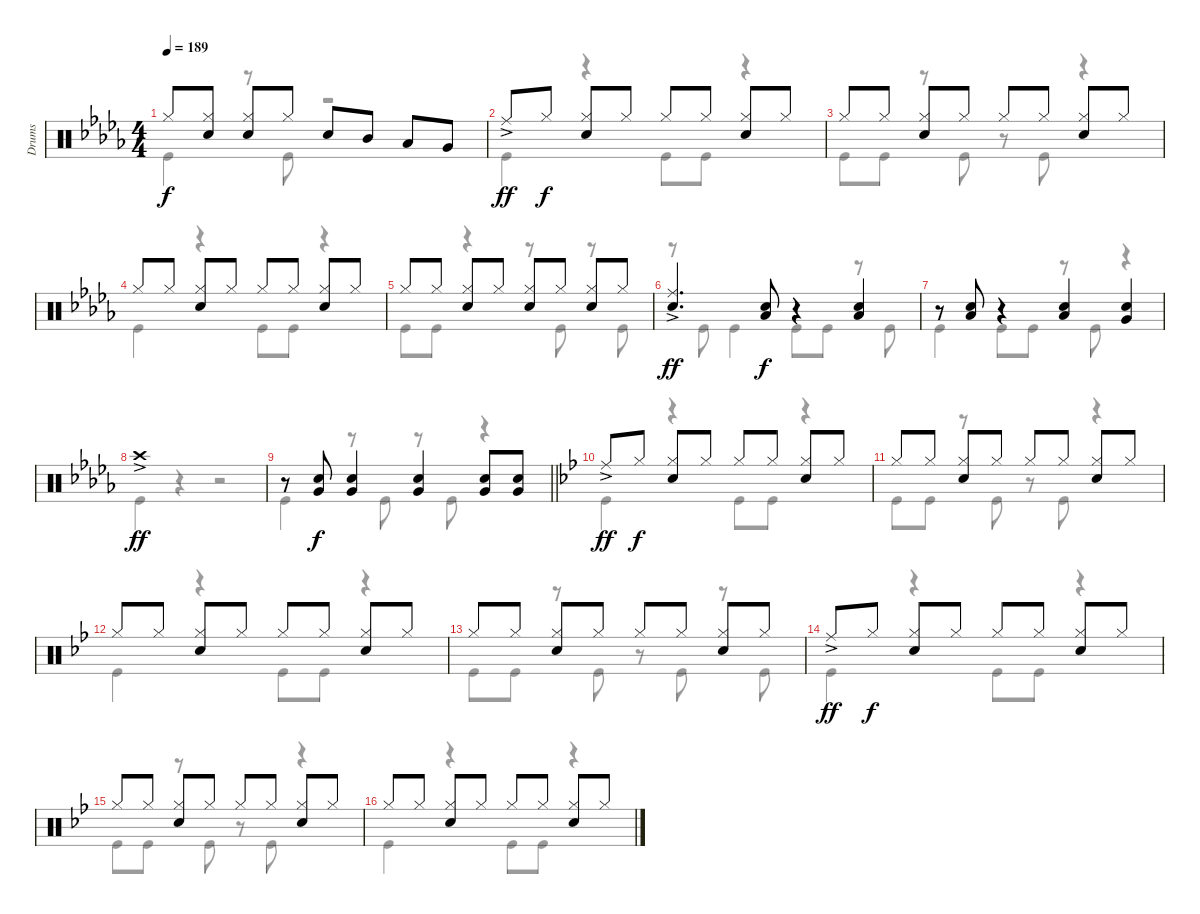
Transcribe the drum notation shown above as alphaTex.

\track ("Drums" "Drums") {instrument percussion}
\staff {score}
\articulation defaults
\voice
\ts (4 4)
\tempo 189
\clef neutral
\ks db "Hi-Hat (closed)".8{dy f}
("Hi-Hat (closed)" "Snare (hit) 2").8 ("Hi-Hat (closed)" "Snare (hit) 2").8 "Hi-Hat (closed)".8 "Snare (hit) 2".8 "Mid Tom (hit)".8 "Low Tom (hit)".8 "Very Low Tom (hit)".8 |
"Ride (middle)"{ac}.8{dy ff} "Hi-Hat (closed)".8{dy f} ("Hi-Hat (closed)" "Snare (hit) 2").8 "Hi-Hat (closed)".8 "Hi-Hat (closed)".8 "Hi-Hat (closed)".8 ("Hi-Hat (closed)" "Snare (hit) 2").8 "Hi-Hat (closed)".8 |
"Hi-Hat (closed)".8 "Hi-Hat (closed)".8 ("Hi-Hat (closed)" "Snare (hit) 2").8 "Hi-Hat (closed)".8 "Hi-Hat (closed)".8 "Hi-Hat (closed)".8 ("Hi-Hat (closed)" "Snare (hit) 2").8 "Hi-Hat (closed)".8 |
"Hi-Hat (closed)".8 "Hi-Hat (closed)".8 ("Hi-Hat (closed)" "Snare (hit) 2").8 "Hi-Hat (closed)".8 "Hi-Hat (closed)".8 "Hi-Hat (closed)".8 ("Hi-Hat (closed)" "Snare (hit) 2").8 "Hi-Hat (closed)".8 |
"Hi-Hat (closed)".8 "Hi-Hat (closed)".8 ("Hi-Hat (closed)" "Snare (hit) 2").8 "Hi-Hat (closed)".8 ("Hi-Hat (closed)" "Snare (hit) 2").8 "Hi-Hat (closed)".8 ("Hi-Hat (closed)" "Snare (hit) 2").8 "Hi-Hat (closed)".8 |
("Ride (middle)"{ac} "Snare (hit) 2").4{d dy ff} ("Snare (hit) 2" "Low Tom (hit)").8{dy f} r.4 ("Snare (hit) 2" "Low Tom (hit)").4 |
r.8 ("Snare (hit) 2" "Low Tom (hit)").8 r.4 ("Snare (hit) 2" "Low Tom (hit)").4 ("Snare (hit) 2" "Very Low Tom (hit)").4 |
"Crash high (hit)"{ac}.1{dy ff} |
\barLineRight lightlight
r.8 ("Snare (hit) 2" "Very Low Tom (hit)").8{dy f} ("Snare (hit) 2" "Very Low Tom (hit)").4 ("Snare (hit) 2" "Very Low Tom (hit)").4 ("Snare (hit) 2" "Very Low Tom (hit)").8 ("Snare (hit) 2" "Very Low Tom (hit)").8 |
\ks bb "Ride (middle)"{ac}.8{dy ff} "Hi-Hat (closed)".8{dy f}
("Hi-Hat (closed)" "Snare (hit) 2").8 "Hi-Hat (closed)".8 "Hi-Hat (closed)".8 "Hi-Hat (closed)".8 ("Hi-Hat (closed)" "Snare (hit) 2").8 "Hi-Hat (closed)".8 |
"Hi-Hat (closed)".8 "Hi-Hat (closed)".8 ("Hi-Hat (closed)" "Snare (hit) 2").8 "Hi-Hat (closed)".8 "Hi-Hat (closed)".8 "Hi-Hat (closed)".8 ("Hi-Hat (closed)" "Snare (hit) 2").8 "Hi-Hat (closed)".8 |
"Hi-Hat (closed)".8 "Hi-Hat (closed)".8 ("Hi-Hat (closed)" "Snare (hit) 2").8 "Hi-Hat (closed)".8 "Hi-Hat (closed)".8 "Hi-Hat (closed)".8 ("Hi-Hat (closed)" "Snare (hit) 2").8 "Hi-Hat (closed)".8 |
"Hi-Hat (closed)".8 "Hi-Hat (closed)".8 ("Hi-Hat (closed)" "Snare (hit) 2").8 "Hi-Hat (closed)".8 "Hi-Hat (closed)".8 "Hi-Hat (closed)".8 ("Hi-Hat (closed)" "Snare (hit) 2").8 "Hi-Hat (closed)".8 |
"Ride (middle)"{ac}.8{dy ff} "Hi-Hat (closed)".8{dy f} ("Hi-Hat (closed)" "Snare (hit) 2").8 "Hi-Hat (closed)".8 "Hi-Hat (closed)".8 "Hi-Hat (closed)".8 ("Hi-Hat (closed)" "Snare (hit) 2").8 "Hi-Hat (closed)".8 |
"Hi-Hat (closed)".8 "Hi-Hat (closed)".8 ("Hi-Hat (closed)" "Snare (hit) 2").8 "Hi-Hat (closed)".8 "Hi-Hat (closed)".8 "Hi-Hat (closed)".8 ("Hi-Hat (closed)" "Snare (hit) 2").8 "Hi-Hat (closed)".8 |
"Hi-Hat (closed)".8 "Hi-Hat (closed)".8 ("Hi-Hat (closed)" "Snare (hit) 2").8 "Hi-Hat (closed)".8 "Hi-Hat (closed)".8 "Hi-Hat (closed)".8 ("Hi-Hat (closed)" "Snare (hit) 2").8 "Hi-Hat (closed)".8
\voice
\clef neutral
\ottava regular
\simile none
\ks db "Kick (hit)".4{dy f}
r.8 "Kick (hit)".8 r.2 |
"Kick (hit)".4 r.4 "Kick (hit)".8 "Kick (hit)".8 r.4 |
"Kick (hit)".8 "Kick (hit)".8 r.8 "Kick (hit)".8 r.8 "Kick (hit)".8 r.4 |
"Kick (hit)".4 r.4 "Kick (hit)".8 "Kick (hit)".8 r.4 |
"Kick (hit)".8 "Kick (hit)".8 r.4 r.8 "Kick (hit)".8 r.8 "Kick (hit)".8 |
r.8 "Kick (hit)".8 "Kick (hit)".4 "Kick (hit)".8 "Kick (hit)".8 r.8 "Kick (hit)".8 |
"Kick (hit)".4 "Kick (hit)".8 "Kick (hit)".8 r.8 "Kick (hit)".8 r.4 |
"Kick (hit)".4 r.4 r.2 |
\barLineRight lightlight "Kick (hit)".4
r.8 "Kick (hit)".8 r.8 "Kick (hit)".8 r.4 |
\ks bb "Kick (hit)".4
r.4 "Kick (hit)".8 "Kick (hit)".8 r.4 |
"Kick (hit)".8 "Kick (hit)".8 r.8 "Kick (hit)".8 r.8 "Kick (hit)".8 r.4 |
"Kick (hit)".4 r.4 "Kick (hit)".8 "Kick (hit)".8 r.4 |
"Kick (hit)".8 "Kick (hit)".8 r.8 "Kick (hit)".8 r.8 "Kick (hit)".8 r.8 "Kick (hit)".8 |
"Kick (hit)".4 r.4 "Kick (hit)".8 "Kick (hit)".8 r.4 |
"Kick (hit)".8 "Kick (hit)".8 r.8 "Kick (hit)".8 r.8 "Kick (hit)".8 r.4 |
"Kick (hit)".4 r.4 "Kick (hit)".8 "Kick (hit)".8 r.4
